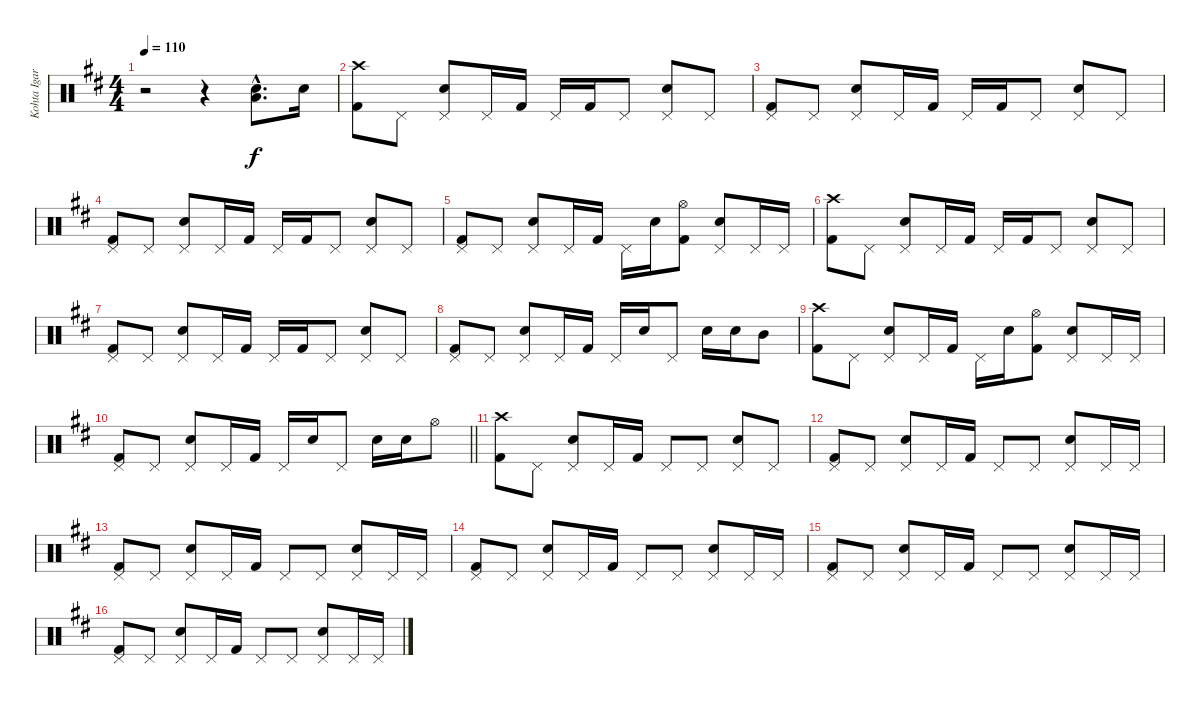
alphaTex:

\track ("Kohta Igarashi" "Kohta Igar") {instrument percussion}
\staff {score}
\articulation defaults
\ts (4 4)
\tempo 110
\clef neutral
\ks d
r.2{dy f} r.4 ("Low Floor Tom (hit)"{hac} "Electric Snare (hit)"{hac}).8{d} "Electric Snare (hit)".16 |
("Crash high (hit)" "Kick (hit) 2").8 "Pedal Hi-Hat (hit)".8 ("Pedal Hi-Hat (hit)" "Electric Snare (hit)").8 "Pedal Hi-Hat (hit)".16 "Kick (hit) 2".16 "Pedal Hi-Hat (hit)".16 "Kick (hit) 2".16 "Pedal Hi-Hat (hit)".8 ("Pedal Hi-Hat (hit)" "Electric Snare (hit)").8 "Pedal Hi-Hat (hit)".8 |
("Pedal Hi-Hat (hit)" "Kick (hit) 2").8 "Pedal Hi-Hat (hit)".8 ("Pedal Hi-Hat (hit)" "Electric Snare (hit)").8 "Pedal Hi-Hat (hit)".16 "Kick (hit) 2".16 "Pedal Hi-Hat (hit)".16 "Kick (hit) 2".16 "Pedal Hi-Hat (hit)".8 ("Pedal Hi-Hat (hit)" "Electric Snare (hit)").8 "Pedal Hi-Hat (hit)".8 |
("Pedal Hi-Hat (hit)" "Kick (hit) 2").8 "Pedal Hi-Hat (hit)".8 ("Pedal Hi-Hat (hit)" "Electric Snare (hit)").8 "Pedal Hi-Hat (hit)".16 "Kick (hit) 2".16 "Pedal Hi-Hat (hit)".16 "Kick (hit) 2".16 "Pedal Hi-Hat (hit)".8 ("Pedal Hi-Hat (hit)" "Electric Snare (hit)").8 "Pedal Hi-Hat (hit)".8 |
("Pedal Hi-Hat (hit)" "Kick (hit) 2").8 "Pedal Hi-Hat (hit)".8 ("Pedal Hi-Hat (hit)" "Electric Snare (hit)").8 "Pedal Hi-Hat (hit)".16 "Kick (hit) 2".16 "Pedal Hi-Hat (hit)".16 "Electric Snare (hit)".16 ("Hi-Hat (open)" "Kick (hit) 2").8 ("Pedal Hi-Hat (hit)" "Electric Snare (hit)").8 "Pedal Hi-Hat (hit)".16 "Pedal Hi-Hat (hit)".16 |
("Crash high (hit)" "Kick (hit) 2").8 "Pedal Hi-Hat (hit)".8 ("Pedal Hi-Hat (hit)" "Electric Snare (hit)").8 "Pedal Hi-Hat (hit)".16 "Kick (hit) 2".16 "Pedal Hi-Hat (hit)".16 "Kick (hit) 2".16 "Pedal Hi-Hat (hit)".8 ("Pedal Hi-Hat (hit)" "Electric Snare (hit)").8 "Pedal Hi-Hat (hit)".8 |
("Pedal Hi-Hat (hit)" "Kick (hit) 2").8 "Pedal Hi-Hat (hit)".8 ("Pedal Hi-Hat (hit)" "Electric Snare (hit)").8 "Pedal Hi-Hat (hit)".16 "Kick (hit) 2".16 "Pedal Hi-Hat (hit)".16 "Kick (hit) 2".16 "Pedal Hi-Hat (hit)".8 ("Pedal Hi-Hat (hit)" "Electric Snare (hit)").8 "Pedal Hi-Hat (hit)".8 |
("Pedal Hi-Hat (hit)" "Kick (hit) 2").8 "Pedal Hi-Hat (hit)".8 ("Pedal Hi-Hat (hit)" "Electric Snare (hit)").8 "Pedal Hi-Hat (hit)".16 "Kick (hit) 2".16 "Pedal Hi-Hat (hit)".16 "Electric Snare (hit)".16 "Pedal Hi-Hat (hit)".8 "Electric Snare (hit)".16 "Electric Snare (hit)".16 "Mid Tom (hit)".8 |
("Crash high (hit)" "Kick (hit) 2").8 "Pedal Hi-Hat (hit)".8 ("Pedal Hi-Hat (hit)" "Electric Snare (hit)").8 "Pedal Hi-Hat (hit)".16 "Kick (hit) 2".16 "Pedal Hi-Hat (hit)".16 "Electric Snare (hit)".16 ("Hi-Hat (open)" "Kick (hit) 2").8 ("Pedal Hi-Hat (hit)" "Electric Snare (hit)").8 "Pedal Hi-Hat (hit)".16 "Pedal Hi-Hat (hit)".16 |
\barLineRight lightlight
("Pedal Hi-Hat (hit)" "Kick (hit) 2").8 "Pedal Hi-Hat (hit)".8 ("Pedal Hi-Hat (hit)" "Electric Snare (hit)").8 "Pedal Hi-Hat (hit)".16 "Kick (hit) 2".16 "Pedal Hi-Hat (hit)".16 "Electric Snare (hit)".16 "Pedal Hi-Hat (hit)".8 "Electric Snare (hit)".16 "Electric Snare (hit)".16 "Hi-Hat (open)".8 |
("Crash high (hit)" "Kick (hit) 2").8 "Pedal Hi-Hat (hit)".8 ("Pedal Hi-Hat (hit)" "Electric Snare (hit)").8 "Pedal Hi-Hat (hit)".16 "Kick (hit) 2".16 "Pedal Hi-Hat (hit)".8 "Pedal Hi-Hat (hit)".8 ("Pedal Hi-Hat (hit)" "Electric Snare (hit)").8 "Pedal Hi-Hat (hit)".8 |
("Pedal Hi-Hat (hit)" "Kick (hit) 2").8 "Pedal Hi-Hat (hit)".8 ("Pedal Hi-Hat (hit)" "Electric Snare (hit)").8 "Pedal Hi-Hat (hit)".16 "Kick (hit) 2".16 "Pedal Hi-Hat (hit)".8 "Pedal Hi-Hat (hit)".8 ("Pedal Hi-Hat (hit)" "Electric Snare (hit)").8 "Pedal Hi-Hat (hit)".16 "Pedal Hi-Hat (hit)".16 |
("Pedal Hi-Hat (hit)" "Kick (hit) 2").8 "Pedal Hi-Hat (hit)".8 ("Pedal Hi-Hat (hit)" "Electric Snare (hit)").8 "Pedal Hi-Hat (hit)".16 "Kick (hit) 2".16 "Pedal Hi-Hat (hit)".8 "Pedal Hi-Hat (hit)".8 ("Pedal Hi-Hat (hit)" "Electric Snare (hit)").8 "Pedal Hi-Hat (hit)".16 "Pedal Hi-Hat (hit)".16 |
("Pedal Hi-Hat (hit)" "Kick (hit) 2").8 "Pedal Hi-Hat (hit)".8 ("Pedal Hi-Hat (hit)" "Electric Snare (hit)").8 "Pedal Hi-Hat (hit)".16 "Kick (hit) 2".16 "Pedal Hi-Hat (hit)".8 "Pedal Hi-Hat (hit)".8 ("Pedal Hi-Hat (hit)" "Electric Snare (hit)").8 "Pedal Hi-Hat (hit)".16 "Pedal Hi-Hat (hit)".16 |
("Pedal Hi-Hat (hit)" "Kick (hit) 2").8 "Pedal Hi-Hat (hit)".8 ("Pedal Hi-Hat (hit)" "Electric Snare (hit)").8 "Pedal Hi-Hat (hit)".16 "Kick (hit) 2".16 "Pedal Hi-Hat (hit)".8 "Pedal Hi-Hat (hit)".8 ("Pedal Hi-Hat (hit)" "Electric Snare (hit)").8 "Pedal Hi-Hat (hit)".16 "Pedal Hi-Hat (hit)".16 |
("Pedal Hi-Hat (hit)" "Kick (hit) 2").8 "Pedal Hi-Hat (hit)".8 ("Pedal Hi-Hat (hit)" "Electric Snare (hit)").8 "Pedal Hi-Hat (hit)".16 "Kick (hit) 2".16 "Pedal Hi-Hat (hit)".8 "Pedal Hi-Hat (hit)".8 ("Pedal Hi-Hat (hit)" "Electric Snare (hit)").8 "Pedal Hi-Hat (hit)".16 "Pedal Hi-Hat (hit)".16
